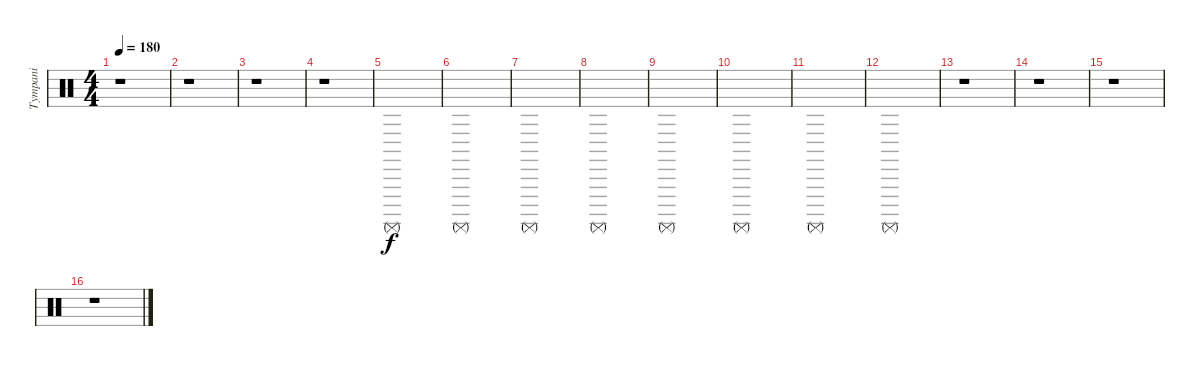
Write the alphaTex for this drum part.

\track ("Tympani" "Tympani") {instrument percussion}
\staff {score}
\articulation defaults
\ts (4 4)
\tempo 180
\clef neutral
\ks c
r.1{dy f} |
r.1 |
r.1 |
r.1 |
"Surdo (mute)".1 |
"Surdo (mute)".1 |
"Surdo (mute)".1 |
"Surdo (mute)".1 |
"Surdo (mute)".1 |
"Surdo (mute)".1 |
"Surdo (mute)".1 |
"Surdo (mute)".1 |
r.1 |
r.1 |
r.1 |
r.1
